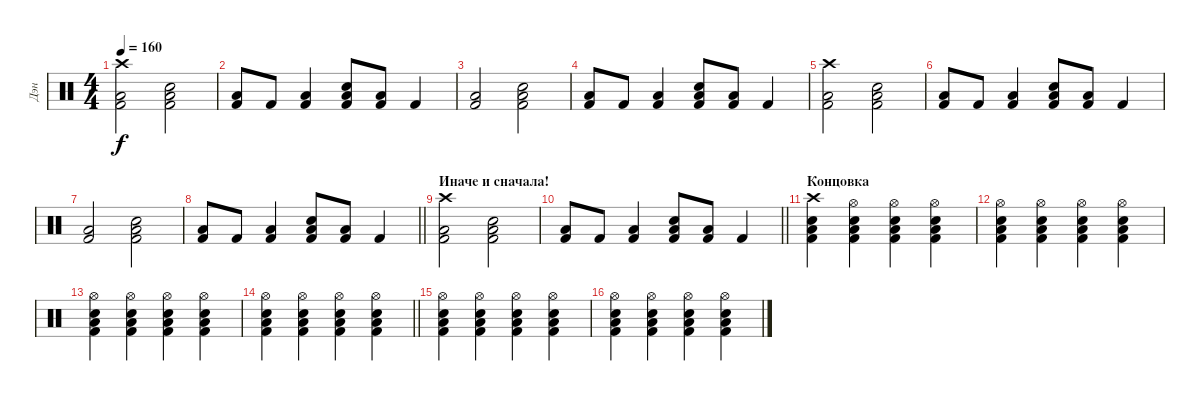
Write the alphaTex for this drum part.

\track ("Дэн" "Дэн") {instrument percussion}
\staff {score}
\articulation defaults
\ts (4 4)
\tempo 160
\clef neutral
\ks c
("Crash high (hit)" "Low Tom (hit)" "Kick (hit) 2").2{dy f} ("Electric Snare (hit)" "Low Tom (hit)" "Kick (hit) 2").2 |
("Low Tom (hit)" "Kick (hit) 2").8 "Kick (hit) 2".8 ("Low Tom (hit)" "Kick (hit) 2").4 ("Electric Snare (hit)" "Low Tom (hit)" "Kick (hit) 2").8 ("Low Tom (hit)" "Kick (hit) 2").8 "Kick (hit) 2".4 |
("Low Tom (hit)" "Kick (hit) 2").2 ("Electric Snare (hit)" "Low Tom (hit)" "Kick (hit) 2").2 |
("Low Tom (hit)" "Kick (hit) 2").8 "Kick (hit) 2".8 ("Low Tom (hit)" "Kick (hit) 2").4 ("Electric Snare (hit)" "Low Tom (hit)" "Kick (hit) 2").8 ("Low Tom (hit)" "Kick (hit) 2").8 "Kick (hit) 2".4 |
("Crash high (hit)" "Low Tom (hit)" "Kick (hit) 2").2 ("Electric Snare (hit)" "Low Tom (hit)" "Kick (hit) 2").2 |
("Low Tom (hit)" "Kick (hit) 2").8 "Kick (hit) 2".8 ("Low Tom (hit)" "Kick (hit) 2").4 ("Electric Snare (hit)" "Low Tom (hit)" "Kick (hit) 2").8 ("Low Tom (hit)" "Kick (hit) 2").8 "Kick (hit) 2".4 |
("Low Tom (hit)" "Kick (hit) 2").2 ("Electric Snare (hit)" "Low Tom (hit)" "Kick (hit) 2").2 |
\barLineRight lightlight
("Low Tom (hit)" "Kick (hit) 2").8 "Kick (hit) 2".8 ("Low Tom (hit)" "Kick (hit) 2").4 ("Electric Snare (hit)" "Low Tom (hit)" "Kick (hit) 2").8 ("Low Tom (hit)" "Kick (hit) 2").8 "Kick (hit) 2".4 |
\section ("" "Иначе и сначала!")
("Crash high (hit)" "Low Tom (hit)" "Kick (hit) 2").2 ("Electric Snare (hit)" "Low Tom (hit)" "Kick (hit) 2").2 |
\barLineRight lightlight
("Low Tom (hit)" "Kick (hit) 2").8 "Kick (hit) 2".8 ("Low Tom (hit)" "Kick (hit) 2").4 ("Electric Snare (hit)" "Low Tom (hit)" "Kick (hit) 2").8 ("Low Tom (hit)" "Kick (hit) 2").8 "Kick (hit) 2".4 |
\section ("" "Концовка")
("Crash high (hit)" "Electric Snare (hit)" "Low Tom (hit)" "Kick (hit) 2").4 ("Hi-Hat (open)" "Electric Snare (hit)" "Low Tom (hit)" "Kick (hit) 2").4 ("Hi-Hat (open)" "Electric Snare (hit)" "Low Tom (hit)" "Kick (hit) 2").4 ("Hi-Hat (open)" "Electric Snare (hit)" "Low Tom (hit)" "Kick (hit) 2").4 |
("Hi-Hat (open)" "Electric Snare (hit)" "Low Tom (hit)" "Kick (hit) 2").4 ("Hi-Hat (open)" "Electric Snare (hit)" "Low Tom (hit)" "Kick (hit) 2").4 ("Hi-Hat (open)" "Electric Snare (hit)" "Low Tom (hit)" "Kick (hit) 2").4 ("Hi-Hat (open)" "Electric Snare (hit)" "Low Tom (hit)" "Kick (hit) 2").4 |
("Hi-Hat (open)" "Electric Snare (hit)" "Low Tom (hit)" "Kick (hit) 2").4 ("Hi-Hat (open)" "Electric Snare (hit)" "Low Tom (hit)" "Kick (hit) 2").4 ("Hi-Hat (open)" "Electric Snare (hit)" "Low Tom (hit)" "Kick (hit) 2").4 ("Hi-Hat (open)" "Electric Snare (hit)" "Low Tom (hit)" "Kick (hit) 2").4 |
\barLineRight lightlight
("Hi-Hat (open)" "Electric Snare (hit)" "Low Tom (hit)" "Kick (hit) 2").4 ("Hi-Hat (open)" "Electric Snare (hit)" "Low Tom (hit)" "Kick (hit) 2").4 ("Hi-Hat (open)" "Electric Snare (hit)" "Low Tom (hit)" "Kick (hit) 2").4 ("Hi-Hat (open)" "Electric Snare (hit)" "Low Tom (hit)" "Kick (hit) 2").4 |
("Hi-Hat (open)" "Electric Snare (hit)" "Low Tom (hit)" "Kick (hit) 2").4 ("Hi-Hat (open)" "Electric Snare (hit)" "Low Tom (hit)" "Kick (hit) 2").4 ("Hi-Hat (open)" "Electric Snare (hit)" "Low Tom (hit)" "Kick (hit) 2").4 ("Hi-Hat (open)" "Electric Snare (hit)" "Low Tom (hit)" "Kick (hit) 2").4 |
("Hi-Hat (open)" "Electric Snare (hit)" "Low Tom (hit)" "Kick (hit) 2").4 ("Hi-Hat (open)" "Electric Snare (hit)" "Low Tom (hit)" "Kick (hit) 2").4 ("Hi-Hat (open)" "Electric Snare (hit)" "Low Tom (hit)" "Kick (hit) 2").4 ("Hi-Hat (open)" "Electric Snare (hit)" "Low Tom (hit)" "Kick (hit) 2").4
